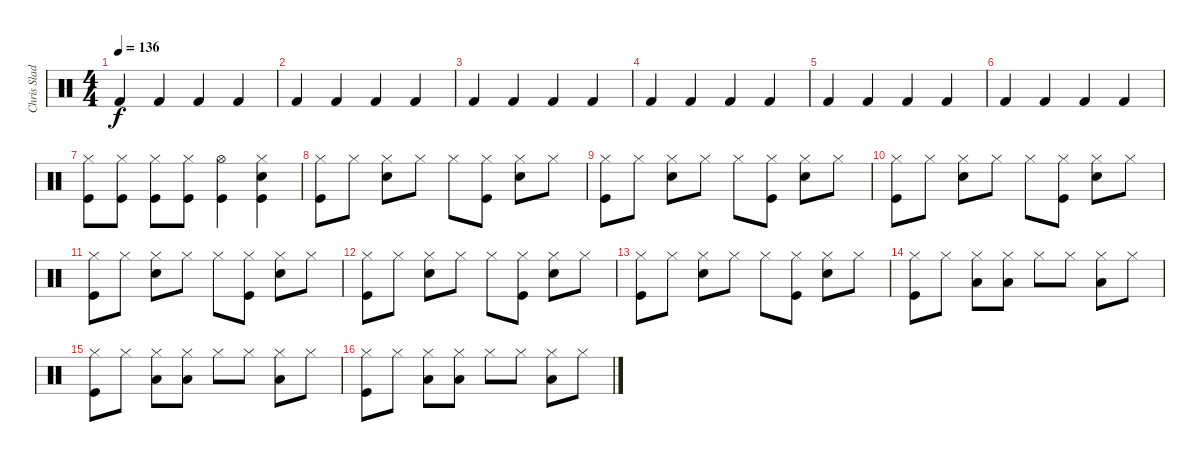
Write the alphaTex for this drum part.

\track ("Chris Slade" "Chris Slad") {instrument percussion}
\staff {score}
\articulation defaults
\ts (4 4)
\tempo 136
\clef neutral
\ks c "Kick (hit) 2".4{dy f} "Kick (hit) 2".4 "Kick (hit) 2".4 "Kick (hit) 2".4
|
"Kick (hit) 2".4 "Kick (hit) 2".4 "Kick (hit) 2".4 "Kick (hit) 2".4 |
"Kick (hit) 2".4 "Kick (hit) 2".4 "Kick (hit) 2".4 "Kick (hit) 2".4 |
"Kick (hit) 2".4 "Kick (hit) 2".4 "Kick (hit) 2".4 "Kick (hit) 2".4 |
"Kick (hit) 2".4 "Kick (hit) 2".4 "Kick (hit) 2".4 "Kick (hit) 2".4 |
"Kick (hit) 2".4 "Kick (hit) 2".4 "Kick (hit) 2".4 "Kick (hit) 2".4 |
("Hi-Hat (closed)" "Kick (hit)").8 ("Hi-Hat (closed)" "Kick (hit)").8 ("Hi-Hat (closed)" "Kick (hit)").8 ("Hi-Hat (closed)" "Kick (hit)").8 ("Hi-Hat (open)" "Kick (hit)").4 ("Hi-Hat (closed)" "Snare (hit) 2" "Kick (hit)").4 |
("Hi-Hat (closed)" "Kick (hit)").8 "Hi-Hat (closed)".8 ("Hi-Hat (closed)" "Snare (hit) 2").8 "Hi-Hat (closed)".8 "Hi-Hat (closed)".8 ("Hi-Hat (closed)" "Kick (hit)").8 ("Hi-Hat (closed)" "Snare (hit) 2").8 "Hi-Hat (closed)".8 |
("Hi-Hat (closed)" "Kick (hit)").8 "Hi-Hat (closed)".8 ("Hi-Hat (closed)" "Snare (hit) 2").8 "Hi-Hat (closed)".8 "Hi-Hat (closed)".8 ("Hi-Hat (closed)" "Kick (hit)").8 ("Hi-Hat (closed)" "Snare (hit) 2").8 "Hi-Hat (closed)".8 |
("Hi-Hat (closed)" "Kick (hit)").8 "Hi-Hat (closed)".8 ("Hi-Hat (closed)" "Snare (hit) 2").8 "Hi-Hat (closed)".8 "Hi-Hat (closed)".8 ("Hi-Hat (closed)" "Kick (hit)").8 ("Hi-Hat (closed)" "Snare (hit) 2").8 "Hi-Hat (closed)".8 |
("Hi-Hat (closed)" "Kick (hit)").8 "Hi-Hat (closed)".8 ("Hi-Hat (closed)" "Snare (hit) 2").8 "Hi-Hat (closed)".8 "Hi-Hat (closed)".8 ("Hi-Hat (closed)" "Kick (hit)").8 ("Hi-Hat (closed)" "Snare (hit) 2").8 "Hi-Hat (closed)".8 |
("Hi-Hat (closed)" "Kick (hit)").8 "Hi-Hat (closed)".8 ("Hi-Hat (closed)" "Snare (hit) 2").8 "Hi-Hat (closed)".8 "Hi-Hat (closed)".8 ("Hi-Hat (closed)" "Kick (hit)").8 ("Hi-Hat (closed)" "Snare (hit) 2").8 "Hi-Hat (closed)".8 |
("Hi-Hat (closed)" "Kick (hit)").8 "Hi-Hat (closed)".8 ("Hi-Hat (closed)" "Snare (hit) 2").8 "Hi-Hat (closed)".8 "Hi-Hat (closed)".8 ("Hi-Hat (closed)" "Kick (hit)").8 ("Hi-Hat (closed)" "Snare (hit) 2").8 "Hi-Hat (closed)".8 |
("Hi-Hat (closed)" "Kick (hit)").8 "Hi-Hat (closed)".8 ("Hi-Hat (closed)" "Low Tom (hit)").8 ("Hi-Hat (closed)" "Low Tom (hit)").8 "Hi-Hat (closed)".8 "Hi-Hat (closed)".8 ("Hi-Hat (closed)" "Low Tom (hit)").8 "Hi-Hat (closed)".8 |
("Hi-Hat (closed)" "Kick (hit)").8 "Hi-Hat (closed)".8 ("Hi-Hat (closed)" "Low Tom (hit)").8 ("Hi-Hat (closed)" "Low Tom (hit)").8 "Hi-Hat (closed)".8 "Hi-Hat (closed)".8 ("Hi-Hat (closed)" "Low Tom (hit)").8 "Hi-Hat (closed)".8 |
("Hi-Hat (closed)" "Kick (hit)").8 "Hi-Hat (closed)".8 ("Hi-Hat (closed)" "Low Tom (hit)").8 ("Hi-Hat (closed)" "Low Tom (hit)").8 "Hi-Hat (closed)".8 "Hi-Hat (closed)".8 ("Hi-Hat (closed)" "Low Tom (hit)").8 "Hi-Hat (closed)".8
